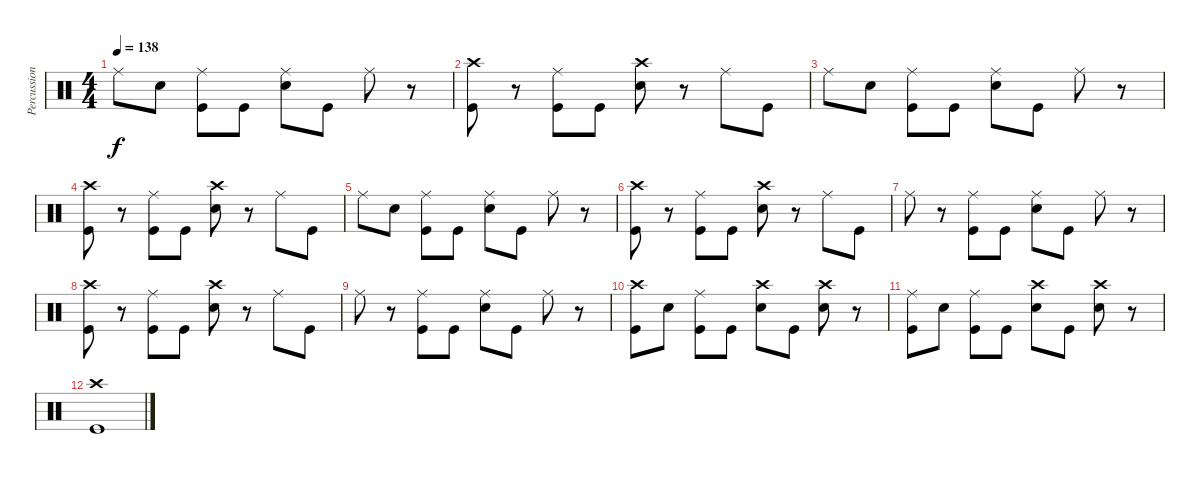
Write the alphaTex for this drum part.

\track ("Percussion" "Percussion") {instrument percussion}
\staff {score}
\articulation defaults
\ts (4 4)
\tempo 138
\clef neutral
\ks c "Ride (middle)".8{dy f} "Snare (hit) 2".8
("Ride (middle)" "Kick (hit)").8 "Kick (hit)".8 ("Snare (hit) 2" "Ride (middle)").8 "Kick (hit)".8 "Ride (middle)".8 r.8 |
("Crash high (hit)" "Kick (hit)").8 r.8 ("Ride (middle)" "Kick (hit)").8 "Kick (hit)".8 ("Snare (hit) 2" "Crash high (hit)").8 r.8 "Ride (middle)".8 "Kick (hit)".8 |
"Ride (middle)".8 "Snare (hit) 2".8 ("Ride (middle)" "Kick (hit)").8 "Kick (hit)".8 ("Snare (hit) 2" "Ride (middle)").8 "Kick (hit)".8 "Ride (middle)".8 r.8 |
("Crash high (hit)" "Kick (hit)").8 r.8 ("Ride (middle)" "Kick (hit)").8 "Kick (hit)".8 ("Snare (hit) 2" "Crash high (hit)").8 r.8 "Ride (middle)".8 "Kick (hit)".8 |
"Ride (middle)".8 "Snare (hit) 2".8 ("Ride (middle)" "Kick (hit)").8 "Kick (hit)".8 ("Snare (hit) 2" "Ride (middle)").8 "Kick (hit)".8 "Ride (middle)".8 r.8 |
("Crash high (hit)" "Kick (hit)").8 r.8 ("Ride (middle)" "Kick (hit)").8 "Kick (hit)".8 ("Snare (hit) 2" "Crash high (hit)").8 r.8 "Ride (middle)".8 "Kick (hit)".8 |
"Ride (middle)".8 r.8 ("Ride (middle)" "Kick (hit)").8 "Kick (hit)".8 ("Snare (hit) 2" "Ride (middle)").8 "Kick (hit)".8 "Ride (middle)".8 r.8 |
("Crash high (hit)" "Kick (hit)").8 r.8 ("Ride (middle)" "Kick (hit)").8 "Kick (hit)".8 ("Snare (hit) 2" "Crash high (hit)").8 r.8 "Ride (middle)".8 "Kick (hit)".8 |
"Ride (middle)".8 r.8 ("Ride (middle)" "Kick (hit)").8 "Kick (hit)".8 ("Snare (hit) 2" "Ride (middle)").8 "Kick (hit)".8 "Ride (middle)".8 r.8 |
("Crash high (hit)" "Kick (hit)").8 "Snare (hit) 2".8 ("Ride (middle)" "Kick (hit)").8 "Kick (hit)".8 ("Snare (hit) 2" "Crash high (hit)").8 "Kick (hit)".8 ("Snare (hit) 2" "Crash high (hit)").8 r.8 |
("Ride (middle)" "Kick (hit)").8 "Snare (hit) 2".8 ("Ride (middle)" "Kick (hit)").8 "Kick (hit)".8 ("Snare (hit) 2" "Crash high (hit)").8 "Kick (hit)".8 ("Snare (hit) 2" "Crash high (hit)").8 r.8 |
("Crash high (hit)" "Kick (hit)").1
